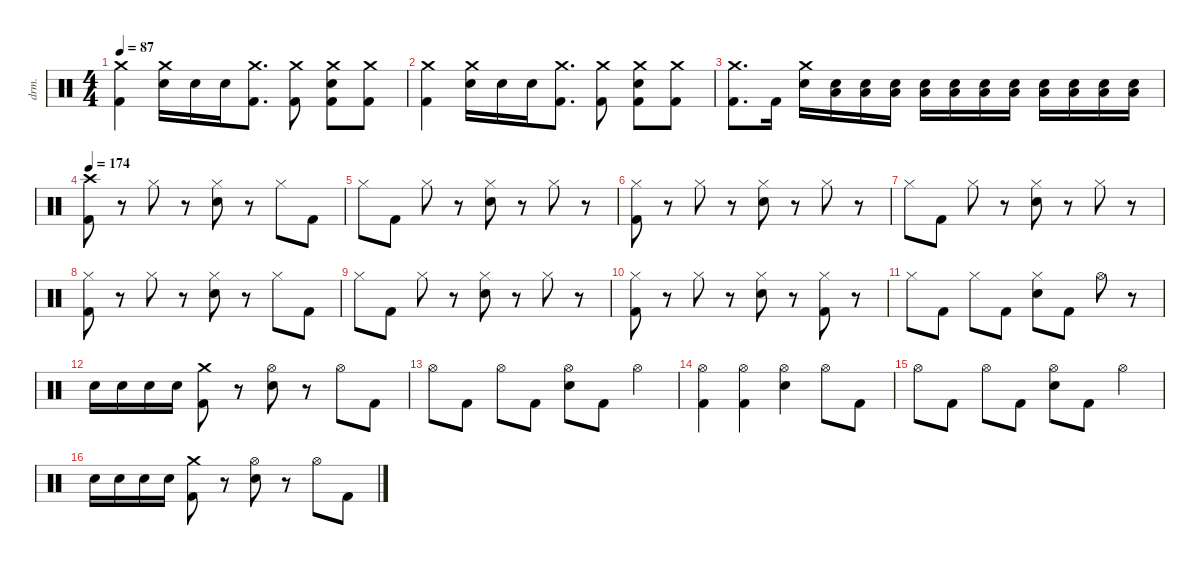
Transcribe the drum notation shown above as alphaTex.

\defaultSystemsLayout 4
\hideDynamics
\bracketExtendMode nobrackets
\track ("Ударные" "drm.") {instrument percussion}
\staff {score}
\articulation defaults
\ts (4 4)
\tempo 87
\clef neutral
\ks c
("Crash medium (hit)" "Kick (hit) 2").4{dy f} ("Crash medium (hit)" "Snare (hit) 2").16 "Snare (hit) 2".16 "Snare (hit) 2".16 ("Crash medium (hit)" "Kick (hit) 2").8{d} ("Crash medium (hit)" "Kick (hit) 2").8 ("Crash medium (hit)" "Snare (hit) 2" "Kick (hit) 2").8 ("Crash medium (hit)" "Kick (hit) 2").8 |
("Crash medium (hit)" "Kick (hit) 2").4 ("Crash medium (hit)" "Snare (hit) 2").16 "Snare (hit) 2".16 "Snare (hit) 2".16 ("Crash medium (hit)" "Kick (hit) 2").8{d} ("Crash medium (hit)" "Kick (hit) 2").8 ("Crash medium (hit)" "Snare (hit) 2" "Kick (hit) 2").8 ("Crash medium (hit)" "Kick (hit) 2").8 |
("Crash medium (hit)" "Kick (hit) 2").8{d} "Kick (hit) 2".16 ("Crash medium (hit)" "Snare (hit) 2").16 ("Low Floor Tom (hit)" "Snare (hit) 2").16 ("Low Floor Tom (hit)" "Snare (hit) 2").16 ("Low Floor Tom (hit)" "Snare (hit) 2").16 ("Low Floor Tom (hit)" "Snare (hit) 2").16 ("Low Floor Tom (hit)" "Snare (hit) 2").16 ("Low Floor Tom (hit)" "Snare (hit) 2").16 ("Low Floor Tom (hit)" "Snare (hit) 2").16 ("Low Floor Tom (hit)" "Snare (hit) 2").16 ("Low Floor Tom (hit)" "Snare (hit) 2").16 ("Low Floor Tom (hit)" "Snare (hit) 2").16 ("Low Floor Tom (hit)" "Snare (hit) 2").16 |
\tempo 174
("Crash high (hit)" "Kick (hit) 2").8 r.8 "Hi-Hat (closed)".8 r.8 ("Hi-Hat (closed)" "Snare (hit) 2").8 r.8 "Hi-Hat (closed)".8 "Kick (hit) 2".8 |
"Hi-Hat (closed)".8 "Kick (hit) 2".8 "Hi-Hat (closed)".8 r.8 ("Hi-Hat (closed)" "Snare (hit) 2").8 r.8 "Hi-Hat (closed)".8 r.8 |
("Hi-Hat (closed)" "Kick (hit) 2").8 r.8 "Hi-Hat (closed)".8 r.8 ("Hi-Hat (closed)" "Snare (hit) 2").8 r.8 "Hi-Hat (closed)".8 r.8 |
"Hi-Hat (closed)".8 "Kick (hit) 2".8 "Hi-Hat (closed)".8 r.8 ("Hi-Hat (closed)" "Snare (hit) 2").8 r.8 "Hi-Hat (closed)".8 r.8 |
("Hi-Hat (closed)" "Kick (hit) 2").8 r.8 "Hi-Hat (closed)".8 r.8 ("Hi-Hat (closed)" "Snare (hit) 2").8 r.8 "Hi-Hat (closed)".8 "Kick (hit) 2".8 |
"Hi-Hat (closed)".8 "Kick (hit) 2".8 "Hi-Hat (closed)".8 r.8 ("Hi-Hat (closed)" "Snare (hit) 2").8 r.8 "Hi-Hat (closed)".8 r.8 |
("Hi-Hat (closed)" "Kick (hit) 2").8 r.8 "Hi-Hat (closed)".8 r.8 ("Hi-Hat (closed)" "Snare (hit) 2").8 r.8 ("Hi-Hat (closed)" "Kick (hit) 2").8 r.8 |
"Hi-Hat (closed)".8 "Kick (hit) 2".8 "Hi-Hat (closed)".8 "Kick (hit) 2".8 ("Hi-Hat (closed)" "Snare (hit) 2").8 "Kick (hit) 2".8 "Hi-Hat (open)".8 r.8 |
"Snare (hit) 2".16 "Snare (hit) 2".16 "Snare (hit) 2".16 "Snare (hit) 2".16 ("Crash medium (hit)" "Kick (hit) 2").8 r.8 ("Hi-Hat (open)" "Snare (hit) 2").8 r.8 "Hi-Hat (open)".8 "Kick (hit) 2".8 |
"Hi-Hat (open)".8 "Kick (hit) 2".8 "Hi-Hat (open)".8 "Kick (hit) 2".8 ("Hi-Hat (open)" "Snare (hit) 2").8 "Kick (hit) 2".8 "Hi-Hat (open)".4 |
("Hi-Hat (open)" "Kick (hit) 2").4 ("Hi-Hat (open)" "Kick (hit) 2").4 ("Hi-Hat (open)" "Snare (hit) 2").4 "Hi-Hat (open)".8 "Kick (hit) 2".8 |
"Hi-Hat (open)".8 "Kick (hit) 2".8 "Hi-Hat (open)".8 "Kick (hit) 2".8 ("Hi-Hat (open)" "Snare (hit) 2").8 "Kick (hit) 2".8 "Hi-Hat (open)".4 |
"Snare (hit) 2".16 "Snare (hit) 2".16 "Snare (hit) 2".16 "Snare (hit) 2".16 ("Crash medium (hit)" "Kick (hit) 2").8 r.8 ("Hi-Hat (open)" "Snare (hit) 2").8 r.8 "Hi-Hat (open)".8 "Kick (hit) 2".8
